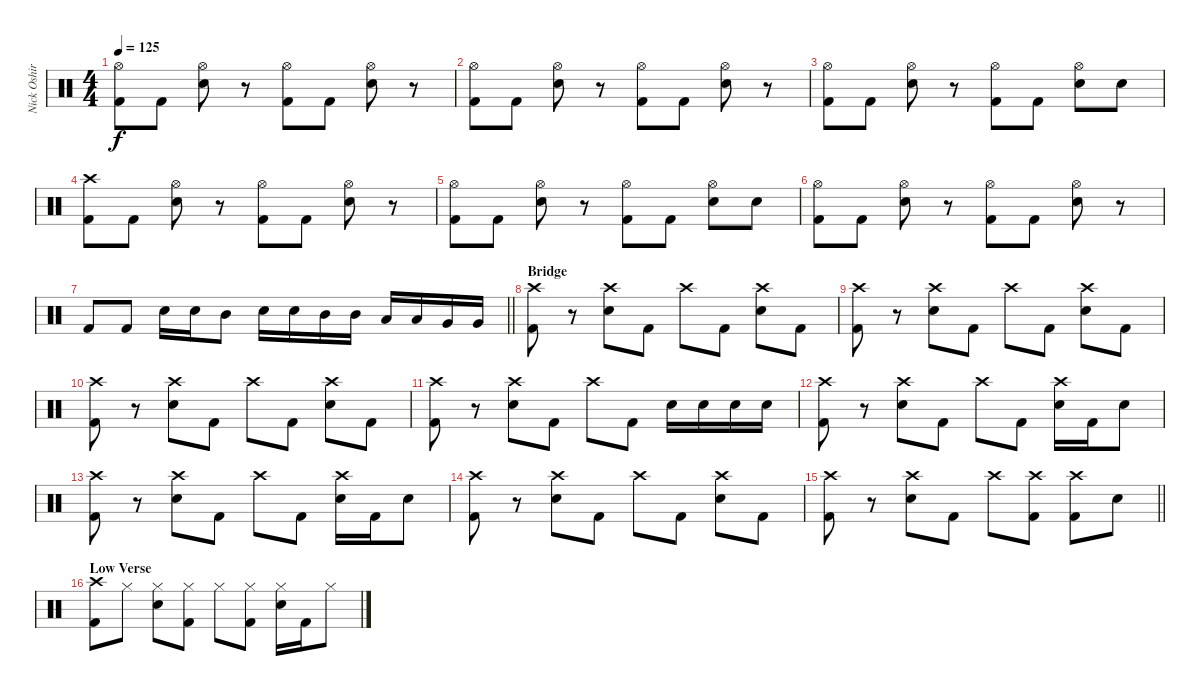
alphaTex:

\track ("Nick Oshiro" "Nick Oshir") {instrument percussion}
\staff {score}
\articulation defaults
\ts (4 4)
\tempo 125
\clef neutral
\ks c
("Hi-Hat (open)" "Kick (hit) 2").8{dy f} "Kick (hit) 2".8 ("Hi-Hat (open)" "Electric Snare (hit)").8 r.8 ("Hi-Hat (open)" "Kick (hit) 2").8 "Kick (hit) 2".8 ("Hi-Hat (open)" "Electric Snare (hit)").8 r.8 |
("Hi-Hat (open)" "Kick (hit) 2").8 "Kick (hit) 2".8 ("Hi-Hat (open)" "Electric Snare (hit)").8 r.8 ("Hi-Hat (open)" "Kick (hit) 2").8 "Kick (hit) 2".8 ("Hi-Hat (open)" "Electric Snare (hit)").8 r.8 |
("Hi-Hat (open)" "Kick (hit) 2").8 "Kick (hit) 2".8 ("Hi-Hat (open)" "Electric Snare (hit)").8 r.8 ("Hi-Hat (open)" "Kick (hit) 2").8 "Kick (hit) 2".8 ("Hi-Hat (open)" "Electric Snare (hit)").8 "Electric Snare (hit)".8 |
("Crash high (hit)" "Kick (hit) 2").8 "Kick (hit) 2".8 ("Hi-Hat (open)" "Electric Snare (hit)").8 r.8 ("Hi-Hat (open)" "Kick (hit) 2").8 "Kick (hit) 2".8 ("Hi-Hat (open)" "Electric Snare (hit)").8 r.8 |
("Hi-Hat (open)" "Kick (hit) 2").8 "Kick (hit) 2".8 ("Hi-Hat (open)" "Electric Snare (hit)").8 r.8 ("Hi-Hat (open)" "Kick (hit) 2").8 "Kick (hit) 2".8 ("Hi-Hat (open)" "Electric Snare (hit)").8 "Electric Snare (hit)".8 |
("Hi-Hat (open)" "Kick (hit) 2").8 "Kick (hit) 2".8 ("Hi-Hat (open)" "Electric Snare (hit)").8 r.8 ("Hi-Hat (open)" "Kick (hit) 2").8 "Kick (hit) 2".8 ("Hi-Hat (open)" "Electric Snare (hit)").8 r.8 |
\barLineRight lightlight "Kick (hit) 2".8 "Kick (hit) 2".8 "Electric Snare (hit)".16 "Electric Snare (hit)".16 "Mid Tom (hit)".8 "Electric Snare (hit)".16 "Electric Snare (hit)".16 "Mid Tom (hit)".16 "Mid Tom (hit)".16 "Low Tom (hit)".16 "Low Tom (hit)".16 "Very Low Tom (hit)".16 "Very Low Tom (hit)".16
|
\section ("" "Bridge")
("Crash high (hit)" "Kick (hit) 2").8 r.8 ("Crash high (hit)" "Electric Snare (hit)").8 "Kick (hit) 2".8 "Crash high (hit)".8 "Kick (hit) 2".8 ("Crash high (hit)" "Electric Snare (hit)").8 "Kick (hit) 2".8 |
("Crash high (hit)" "Kick (hit) 2").8 r.8 ("Crash high (hit)" "Electric Snare (hit)").8 "Kick (hit) 2".8 "Crash high (hit)".8 "Kick (hit) 2".8 ("Crash high (hit)" "Electric Snare (hit)").8 "Kick (hit) 2".8 |
("Crash high (hit)" "Kick (hit) 2").8 r.8 ("Crash high (hit)" "Electric Snare (hit)").8 "Kick (hit) 2".8 "Crash high (hit)".8 "Kick (hit) 2".8 ("Crash high (hit)" "Electric Snare (hit)").8 "Kick (hit) 2".8 |
("Crash high (hit)" "Kick (hit) 2").8 r.8 ("Crash high (hit)" "Electric Snare (hit)").8 "Kick (hit) 2".8 "Crash high (hit)".8 "Kick (hit) 2".8 "Electric Snare (hit)".16 "Electric Snare (hit)".16 "Electric Snare (hit)".16 "Electric Snare (hit)".16 |
("Crash high (hit)" "Kick (hit) 2").8 r.8 ("Crash high (hit)" "Electric Snare (hit)").8 "Kick (hit) 2".8 "Crash high (hit)".8 "Kick (hit) 2".8 ("Crash high (hit)" "Electric Snare (hit)").16 "Kick (hit) 2".16 "Electric Snare (hit)".8 |
("Crash high (hit)" "Kick (hit) 2").8 r.8 ("Crash high (hit)" "Electric Snare (hit)").8 "Kick (hit) 2".8 "Crash high (hit)".8 "Kick (hit) 2".8 ("Crash high (hit)" "Electric Snare (hit)").16 "Kick (hit) 2".16 "Electric Snare (hit)".8 |
("Crash high (hit)" "Kick (hit) 2").8 r.8 ("Crash high (hit)" "Electric Snare (hit)").8 "Kick (hit) 2".8 "Crash high (hit)".8 "Kick (hit) 2".8 ("Crash high (hit)" "Electric Snare (hit)").8 "Kick (hit) 2".8 |
\barLineRight lightlight
("Crash high (hit)" "Kick (hit) 2").8 r.8 ("Crash high (hit)" "Electric Snare (hit)").8 "Kick (hit) 2".8 "Crash high (hit)".8 ("Crash high (hit)" "Kick (hit) 2").8 ("Crash high (hit)" "Kick (hit) 2").8 "Electric Snare (hit)".8 |
\section ("" "Low Verse")
("Crash high (hit)" "Kick (hit) 2").8{volume 6} "Hi-Hat (closed)".8 ("Hi-Hat (closed)" "Electric Snare (hit)").8 ("Hi-Hat (closed)" "Kick (hit) 2").8 "Hi-Hat (closed)".8 ("Hi-Hat (closed)" "Kick (hit) 2").8 ("Hi-Hat (closed)" "Electric Snare (hit)").16 "Kick (hit) 2".16 "Hi-Hat (closed)".8
